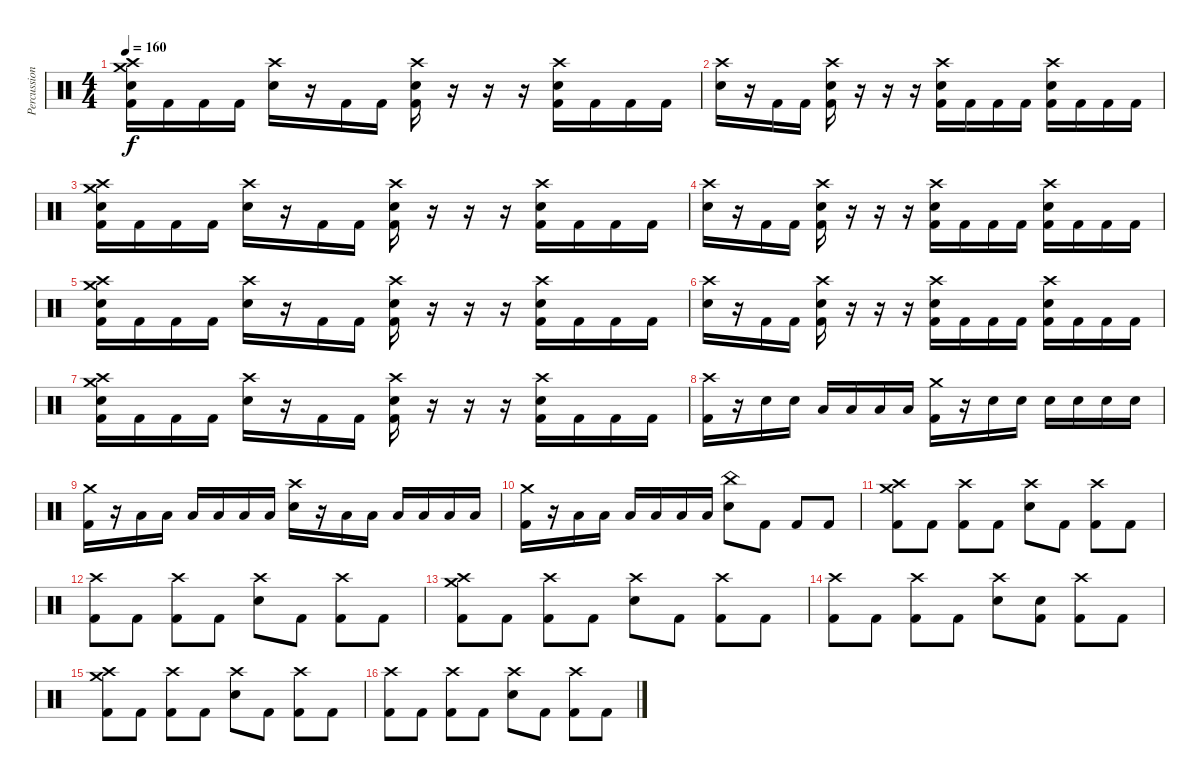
\track ("Percussion" "Percussion") {instrument percussion}
\staff {score}
\articulation defaults
\ts (4 4)
\tempo 160
\clef neutral
\ks c
("Crash medium (hit)" "Crash high (hit)" "Electric Snare (hit)" "Kick (hit) 2").16{dy f} "Kick (hit) 2".16 "Kick (hit) 2".16 "Kick (hit) 2".16 ("Crash high (hit)" "Electric Snare (hit)").16 r.16 "Kick (hit) 2".16 "Kick (hit) 2".16 ("Crash high (hit)" "Electric Snare (hit)" "Kick (hit) 2").16 r.16 r.16 r.16 ("Crash high (hit)" "Electric Snare (hit)" "Kick (hit) 2").16 "Kick (hit) 2".16 "Kick (hit) 2".16 "Kick (hit) 2".16 |
("Crash high (hit)" "Electric Snare (hit)").16 r.16 "Kick (hit) 2".16 "Kick (hit) 2".16 ("Crash high (hit)" "Electric Snare (hit)" "Kick (hit) 2").16 r.16 r.16 r.16 ("Crash high (hit)" "Electric Snare (hit)" "Kick (hit) 2").16 "Kick (hit) 2".16 "Kick (hit) 2".16 "Kick (hit) 2".16 ("Crash high (hit)" "Electric Snare (hit)" "Kick (hit) 2").16 "Kick (hit) 2".16 "Kick (hit) 2".16 "Kick (hit) 2".16 |
("Crash medium (hit)" "Crash high (hit)" "Electric Snare (hit)" "Kick (hit) 2").16 "Kick (hit) 2".16 "Kick (hit) 2".16 "Kick (hit) 2".16 ("Crash high (hit)" "Electric Snare (hit)").16 r.16 "Kick (hit) 2".16 "Kick (hit) 2".16 ("Crash high (hit)" "Electric Snare (hit)" "Kick (hit) 2").16 r.16 r.16 r.16 ("Crash high (hit)" "Electric Snare (hit)" "Kick (hit) 2").16 "Kick (hit) 2".16 "Kick (hit) 2".16 "Kick (hit) 2".16 |
("Crash high (hit)" "Electric Snare (hit)").16 r.16 "Kick (hit) 2".16 "Kick (hit) 2".16 ("Crash high (hit)" "Electric Snare (hit)" "Kick (hit) 2").16 r.16 r.16 r.16 ("Crash high (hit)" "Electric Snare (hit)" "Kick (hit) 2").16 "Kick (hit) 2".16 "Kick (hit) 2".16 "Kick (hit) 2".16 ("Crash high (hit)" "Electric Snare (hit)" "Kick (hit) 2").16 "Kick (hit) 2".16 "Kick (hit) 2".16 "Kick (hit) 2".16 |
("Crash medium (hit)" "Crash high (hit)" "Electric Snare (hit)" "Kick (hit) 2").16 "Kick (hit) 2".16 "Kick (hit) 2".16 "Kick (hit) 2".16 ("Crash high (hit)" "Electric Snare (hit)").16 r.16 "Kick (hit) 2".16 "Kick (hit) 2".16 ("Crash high (hit)" "Electric Snare (hit)" "Kick (hit) 2").16 r.16 r.16 r.16 ("Crash high (hit)" "Electric Snare (hit)" "Kick (hit) 2").16 "Kick (hit) 2".16 "Kick (hit) 2".16 "Kick (hit) 2".16 |
("Crash high (hit)" "Electric Snare (hit)").16 r.16 "Kick (hit) 2".16 "Kick (hit) 2".16 ("Crash high (hit)" "Electric Snare (hit)" "Kick (hit) 2").16 r.16 r.16 r.16 ("Crash high (hit)" "Electric Snare (hit)" "Kick (hit) 2").16 "Kick (hit) 2".16 "Kick (hit) 2".16 "Kick (hit) 2".16 ("Crash high (hit)" "Electric Snare (hit)" "Kick (hit) 2").16 "Kick (hit) 2".16 "Kick (hit) 2".16 "Kick (hit) 2".16 |
("Crash medium (hit)" "Crash high (hit)" "Electric Snare (hit)" "Kick (hit) 2").16 "Kick (hit) 2".16 "Kick (hit) 2".16 "Kick (hit) 2".16 ("Crash high (hit)" "Electric Snare (hit)").16 r.16 "Kick (hit) 2".16 "Kick (hit) 2".16 ("Crash high (hit)" "Electric Snare (hit)" "Kick (hit) 2").16 r.16 r.16 r.16 ("Crash high (hit)" "Electric Snare (hit)" "Kick (hit) 2").16 "Kick (hit) 2".16 "Kick (hit) 2".16 "Kick (hit) 2".16 |
("Crash high (hit)" "Kick (hit) 2").16 r.16 "Electric Snare (hit)".16 "Electric Snare (hit)".16 "Low Tom (hit)".16 "Low Tom (hit)".16 "Low Floor Tom (hit)".16 "Low Floor Tom (hit)".16 ("Crash medium (hit)" "Kick (hit) 2").16 r.16 "Electric Snare (hit)".16 "Electric Snare (hit)".16 "Electric Snare (hit)".16 "Electric Snare (hit)".16 "Electric Snare (hit)".16 "Electric Snare (hit)".16 |
("Crash medium (hit)" "Kick (hit) 2").16 r.16 "Low Tom (hit)".16 "Low Tom (hit)".16 "Low Tom (hit)".16 "Low Tom (hit)".16 "Low Tom (hit)".16 "Low Tom (hit)".16 ("Crash high (hit)" "Electric Snare (hit)").16 r.16 "Low Floor Tom (hit)".16 "Low Floor Tom (hit)".16 "Low Floor Tom (hit)".16 "Low Floor Tom (hit)".16 "Low Floor Tom (hit)".16 "Low Floor Tom (hit)".16 |
("Crash medium (hit)" "Kick (hit) 2").16 r.16 "Low Floor Tom (hit)".16 "Low Floor Tom (hit)".16 "Low Floor Tom (hit)".16 "Low Floor Tom (hit)".16 "Low Floor Tom (hit)".16 "Low Floor Tom (hit)".16 ("China (hit)" "Electric Snare (hit)").8 "Kick (hit) 2".8 "Kick (hit) 2".8 "Kick (hit) 2".8 |
("Crash medium (hit)" "Crash high (hit)" "Kick (hit) 2").8 "Kick (hit) 2".8 ("Crash high (hit)" "Kick (hit) 2").8 "Kick (hit) 2".8 ("Crash high (hit)" "Electric Snare (hit)").8 "Kick (hit) 2".8 ("Crash high (hit)" "Kick (hit) 2").8 "Kick (hit) 2".8 |
("Crash high (hit)" "Kick (hit) 2").8 "Kick (hit) 2".8 ("Crash high (hit)" "Kick (hit) 2").8 "Kick (hit) 2".8 ("Crash high (hit)" "Electric Snare (hit)").8 "Kick (hit) 2".8 ("Crash high (hit)" "Kick (hit) 2").8 "Kick (hit) 2".8 |
("Crash medium (hit)" "Crash high (hit)" "Kick (hit) 2").8 "Kick (hit) 2".8 ("Crash high (hit)" "Kick (hit) 2").8 "Kick (hit) 2".8 ("Crash high (hit)" "Electric Snare (hit)").8 "Kick (hit) 2".8 ("Crash high (hit)" "Kick (hit) 2").8 "Kick (hit) 2".8 |
("Crash high (hit)" "Kick (hit) 2").8 "Kick (hit) 2".8 ("Crash high (hit)" "Kick (hit) 2").8 "Kick (hit) 2".8 ("Crash high (hit)" "Electric Snare (hit)").8 ("Electric Snare (hit)" "Kick (hit) 2").8 ("Crash high (hit)" "Kick (hit) 2").8 "Kick (hit) 2".8 |
("Crash medium (hit)" "Crash high (hit)" "Kick (hit) 2").8 "Kick (hit) 2".8 ("Crash high (hit)" "Kick (hit) 2").8 "Kick (hit) 2".8 ("Crash high (hit)" "Electric Snare (hit)").8 "Kick (hit) 2".8 ("Crash high (hit)" "Kick (hit) 2").8 "Kick (hit) 2".8 |
("Crash high (hit)" "Kick (hit) 2").8 "Kick (hit) 2".8 ("Crash high (hit)" "Kick (hit) 2").8 "Kick (hit) 2".8 ("Crash high (hit)" "Electric Snare (hit)").8 "Kick (hit) 2".8 ("Crash high (hit)" "Kick (hit) 2").8 "Kick (hit) 2".8
